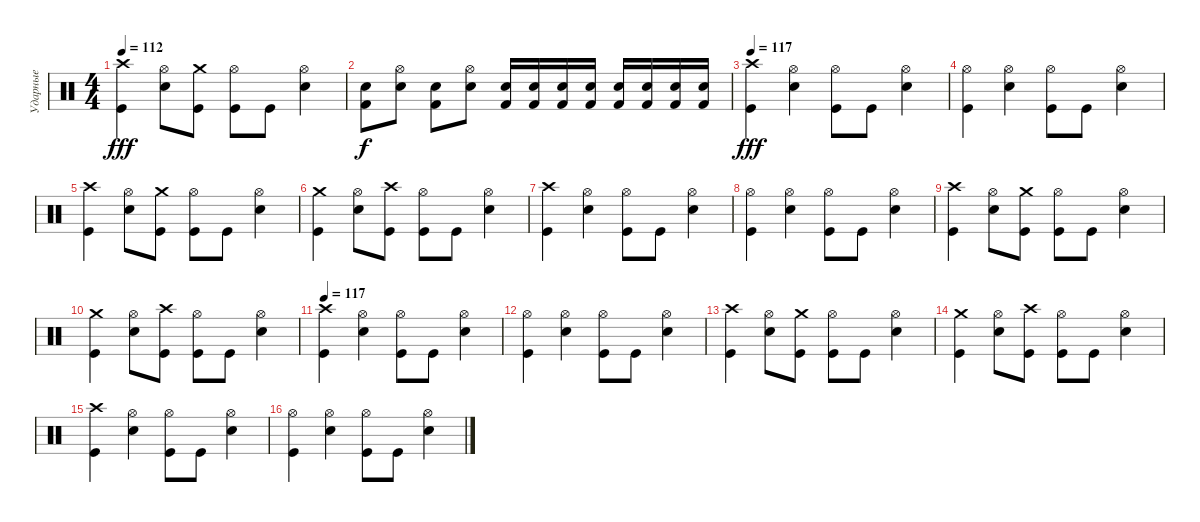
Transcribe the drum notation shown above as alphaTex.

\track ("Ударные" "Ударные") {instrument percussion}
\staff {score}
\articulation defaults
\ts (4 4)
\tempo 112
\clef neutral
\ks c
("Crash high (hit)" "Kick (hit)").4{dy fff} ("Hi-Hat (open)" "Electric Snare (hit)").8 ("Crash medium (hit)" "Kick (hit)").8 ("Hi-Hat (open)" "Kick (hit)").8 "Kick (hit)".8 ("Hi-Hat (open)" "Electric Snare (hit)").4 |
("Electric Snare (hit)" "Kick (hit) 2").8{dy f} ("Electric Snare (hit)" "Hi-Hat (open)").8 ("Electric Snare (hit)" "Kick (hit) 2").8 ("Electric Snare (hit)" "Hi-Hat (open)").8 ("Electric Snare (hit)" "Kick (hit) 2").16 ("Electric Snare (hit)" "Kick (hit) 2").16 ("Kick (hit) 2" "Electric Snare (hit)").16 ("Electric Snare (hit)" "Kick (hit) 2").16 ("Kick (hit) 2" "Electric Snare (hit)").16 ("Electric Snare (hit)" "Kick (hit) 2").16 ("Kick (hit) 2" "Electric Snare (hit)").16 ("Electric Snare (hit)" "Kick (hit) 2").16 |
\tempo 117
("Crash high (hit)" "Kick (hit)").4{dy fff} ("Hi-Hat (open)" "Electric Snare (hit)").4 ("Hi-Hat (open)" "Kick (hit)").8 "Kick (hit)".8 ("Hi-Hat (open)" "Electric Snare (hit)").4 |
("Hi-Hat (open)" "Kick (hit)").4 ("Hi-Hat (open)" "Electric Snare (hit)").4 ("Hi-Hat (open)" "Kick (hit)").8 "Kick (hit)".8 ("Hi-Hat (open)" "Electric Snare (hit)").4 |
("Crash high (hit)" "Kick (hit)").4 ("Hi-Hat (open)" "Electric Snare (hit)").8 ("Crash medium (hit)" "Kick (hit)").8 ("Hi-Hat (open)" "Kick (hit)").8 "Kick (hit)".8 ("Hi-Hat (open)" "Electric Snare (hit)").4 |
("Crash medium (hit)" "Kick (hit)").4 ("Hi-Hat (open)" "Electric Snare (hit)").8 ("Crash high (hit)" "Kick (hit)").8 ("Hi-Hat (open)" "Kick (hit)").8 "Kick (hit)".8 ("Hi-Hat (open)" "Electric Snare (hit)").4 |
("Crash high (hit)" "Kick (hit)").4 ("Hi-Hat (open)" "Electric Snare (hit)").4 ("Hi-Hat (open)" "Kick (hit)").8 "Kick (hit)".8 ("Hi-Hat (open)" "Electric Snare (hit)").4 |
("Hi-Hat (open)" "Kick (hit)").4 ("Hi-Hat (open)" "Electric Snare (hit)").4 ("Hi-Hat (open)" "Kick (hit)").8 "Kick (hit)".8 ("Hi-Hat (open)" "Electric Snare (hit)").4 |
("Crash high (hit)" "Kick (hit)").4 ("Hi-Hat (open)" "Electric Snare (hit)").8 ("Crash medium (hit)" "Kick (hit)").8 ("Hi-Hat (open)" "Kick (hit)").8 "Kick (hit)".8 ("Hi-Hat (open)" "Electric Snare (hit)").4 |
("Crash medium (hit)" "Kick (hit)").4 ("Hi-Hat (open)" "Electric Snare (hit)").8 ("Crash high (hit)" "Kick (hit)").8 ("Hi-Hat (open)" "Kick (hit)").8 "Kick (hit)".8 ("Hi-Hat (open)" "Electric Snare (hit)").4 |
\tempo 117
("Crash high (hit)" "Kick (hit)").4 ("Hi-Hat (open)" "Electric Snare (hit)").4 ("Hi-Hat (open)" "Kick (hit)").8 "Kick (hit)".8 ("Hi-Hat (open)" "Electric Snare (hit)").4 |
("Hi-Hat (open)" "Kick (hit)").4 ("Hi-Hat (open)" "Electric Snare (hit)").4 ("Hi-Hat (open)" "Kick (hit)").8 "Kick (hit)".8 ("Hi-Hat (open)" "Electric Snare (hit)").4 |
("Crash high (hit)" "Kick (hit)").4 ("Hi-Hat (open)" "Electric Snare (hit)").8 ("Crash medium (hit)" "Kick (hit)").8 ("Hi-Hat (open)" "Kick (hit)").8 "Kick (hit)".8 ("Hi-Hat (open)" "Electric Snare (hit)").4 |
("Crash medium (hit)" "Kick (hit)").4 ("Hi-Hat (open)" "Electric Snare (hit)").8 ("Crash high (hit)" "Kick (hit)").8 ("Hi-Hat (open)" "Kick (hit)").8 "Kick (hit)".8 ("Hi-Hat (open)" "Electric Snare (hit)").4 |
("Crash high (hit)" "Kick (hit)").4 ("Hi-Hat (open)" "Electric Snare (hit)").4 ("Hi-Hat (open)" "Kick (hit)").8 "Kick (hit)".8 ("Hi-Hat (open)" "Electric Snare (hit)").4 |
("Hi-Hat (open)" "Kick (hit)").4 ("Hi-Hat (open)" "Electric Snare (hit)").4 ("Hi-Hat (open)" "Kick (hit)").8 "Kick (hit)".8 ("Hi-Hat (open)" "Electric Snare (hit)").4
